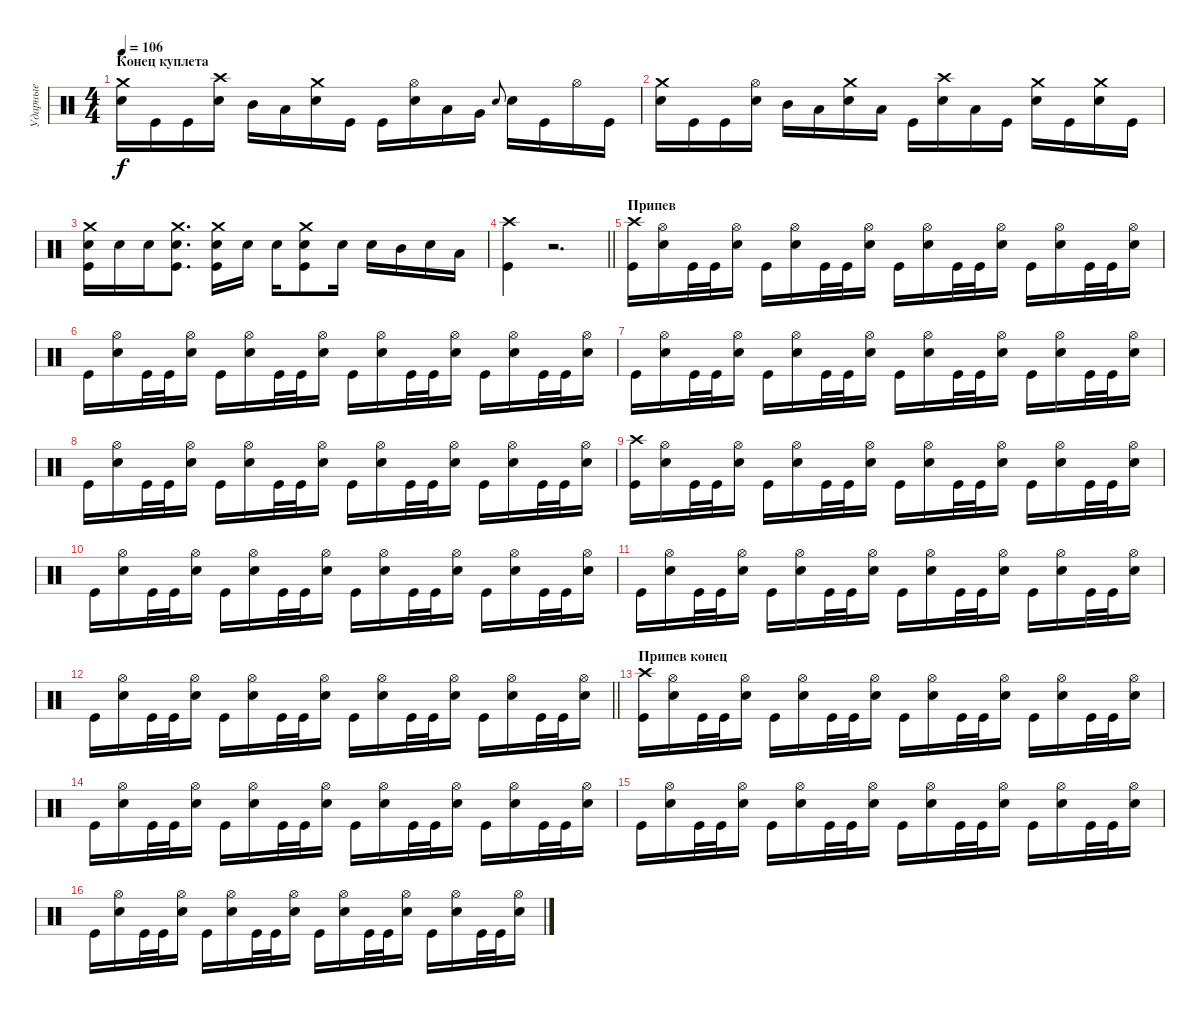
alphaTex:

\track ("Ударные" "Ударные") {instrument percussion}
\staff {score}
\articulation defaults
\ts (4 4)
\section ("" "Конец куплета")
\tempo 106
\clef neutral
\ks c
("Crash medium (hit)" "Snare (hit) 2").16{dy f} "Kick (hit)".16 "Kick (hit)".16 ("Crash high (hit)" "Snare (hit) 2").16 "Mid Tom (hit)".16 "Low Tom (hit)".16 ("Crash medium (hit)" "Snare (hit) 2").16 "Kick (hit)".16 "Kick (hit)".16 ("Hi-Hat (open)" "Snare (hit) 2").16 "Low Tom (hit)".16 "Very Low Tom (hit)".16 "Snare (hit) 2".8{gr onbeat} "Snare (hit) 2".16 "Kick (hit)".16 "Hi-Hat (open)".16 "Kick (hit)".16 |
("Crash medium (hit)" "Snare (hit) 2").16 "Kick (hit)".16 "Kick (hit)".16 ("Hi-Hat (open)" "Snare (hit) 2").16 "Mid Tom (hit)".16 "Low Tom (hit)".16 ("Crash medium (hit)" "Snare (hit) 2").16 "Low Tom (hit)".16 "Kick (hit)".16 ("Crash high (hit)" "Snare (hit) 2").16 "Low Tom (hit)".16 "Kick (hit)".16 ("Crash medium (hit)" "Snare (hit) 2").16 "Kick (hit)".16 ("Crash medium (hit)" "Snare (hit) 2").16 "Kick (hit)".16 |
("Crash medium (hit)" "Kick (hit)" "Snare (hit) 2").16 "Snare (hit) 2".16 "Snare (hit) 2".16 ("Crash medium (hit)" "Kick (hit)" "Snare (hit) 2").8{d} ("Crash medium (hit)" "Kick (hit)" "Snare (hit) 2").16 "Snare (hit) 2".16 "Snare (hit) 2".16 ("Crash medium (hit)" "Kick (hit)" "Snare (hit) 2").8 "Snare (hit) 2".16 "Snare (hit) 2".16 "Mid Tom (hit)".16 "Snare (hit) 2".16 "Low Tom (hit)".16 |
\barLineRight lightlight
("Crash high (hit)" "Kick (hit)").4 r.2{d} |
\section ("" "Припев")
("Crash high (hit)" "Kick (hit)").16 ("Hi-Hat (open)" "Snare (hit) 2").16 "Kick (hit)".32 "Kick (hit)".32 ("Hi-Hat (open)" "Snare (hit) 2").16 "Kick (hit)".16 ("Hi-Hat (open)" "Snare (hit) 2").16 "Kick (hit)".32 "Kick (hit)".32 ("Hi-Hat (open)" "Snare (hit) 2").16 "Kick (hit)".16 ("Hi-Hat (open)" "Snare (hit) 2").16 "Kick (hit)".32 "Kick (hit)".32 ("Hi-Hat (open)" "Snare (hit) 2").16 "Kick (hit)".16 ("Hi-Hat (open)" "Snare (hit) 2").16 "Kick (hit)".32 "Kick (hit)".32 ("Hi-Hat (open)" "Snare (hit) 2").16 |
"Kick (hit)".16 ("Hi-Hat (open)" "Snare (hit) 2").16 "Kick (hit)".32 "Kick (hit)".32 ("Hi-Hat (open)" "Snare (hit) 2").16 "Kick (hit)".16 ("Hi-Hat (open)" "Snare (hit) 2").16 "Kick (hit)".32 "Kick (hit)".32 ("Hi-Hat (open)" "Snare (hit) 2").16 "Kick (hit)".16 ("Hi-Hat (open)" "Snare (hit) 2").16 "Kick (hit)".32 "Kick (hit)".32 ("Hi-Hat (open)" "Snare (hit) 2").16 "Kick (hit)".16 ("Hi-Hat (open)" "Snare (hit) 2").16 "Kick (hit)".32 "Kick (hit)".32 ("Hi-Hat (open)" "Snare (hit) 2").16 |
"Kick (hit)".16 ("Hi-Hat (open)" "Snare (hit) 2").16 "Kick (hit)".32 "Kick (hit)".32 ("Hi-Hat (open)" "Snare (hit) 2").16 "Kick (hit)".16 ("Hi-Hat (open)" "Snare (hit) 2").16 "Kick (hit)".32 "Kick (hit)".32 ("Hi-Hat (open)" "Snare (hit) 2").16 "Kick (hit)".16 ("Hi-Hat (open)" "Snare (hit) 2").16 "Kick (hit)".32 "Kick (hit)".32 ("Hi-Hat (open)" "Snare (hit) 2").16 "Kick (hit)".16 ("Hi-Hat (open)" "Snare (hit) 2").16 "Kick (hit)".32 "Kick (hit)".32 ("Hi-Hat (open)" "Snare (hit) 2").16 |
"Kick (hit)".16 ("Hi-Hat (open)" "Snare (hit) 2").16 "Kick (hit)".32 "Kick (hit)".32 ("Hi-Hat (open)" "Snare (hit) 2").16 "Kick (hit)".16 ("Hi-Hat (open)" "Snare (hit) 2").16 "Kick (hit)".32 "Kick (hit)".32 ("Hi-Hat (open)" "Snare (hit) 2").16 "Kick (hit)".16 ("Hi-Hat (open)" "Snare (hit) 2").16 "Kick (hit)".32 "Kick (hit)".32 ("Hi-Hat (open)" "Snare (hit) 2").16 "Kick (hit)".16 ("Hi-Hat (open)" "Snare (hit) 2").16 "Kick (hit)".32 "Kick (hit)".32 ("Hi-Hat (open)" "Snare (hit) 2").16 |
("Crash high (hit)" "Kick (hit)").16 ("Hi-Hat (open)" "Snare (hit) 2").16 "Kick (hit)".32 "Kick (hit)".32 ("Hi-Hat (open)" "Snare (hit) 2").16 "Kick (hit)".16 ("Hi-Hat (open)" "Snare (hit) 2").16 "Kick (hit)".32 "Kick (hit)".32 ("Hi-Hat (open)" "Snare (hit) 2").16 "Kick (hit)".16 ("Hi-Hat (open)" "Snare (hit) 2").16 "Kick (hit)".32 "Kick (hit)".32 ("Hi-Hat (open)" "Snare (hit) 2").16 "Kick (hit)".16 ("Hi-Hat (open)" "Snare (hit) 2").16 "Kick (hit)".32 "Kick (hit)".32 ("Hi-Hat (open)" "Snare (hit) 2").16 |
"Kick (hit)".16 ("Hi-Hat (open)" "Snare (hit) 2").16 "Kick (hit)".32 "Kick (hit)".32 ("Hi-Hat (open)" "Snare (hit) 2").16 "Kick (hit)".16 ("Hi-Hat (open)" "Snare (hit) 2").16 "Kick (hit)".32 "Kick (hit)".32 ("Hi-Hat (open)" "Snare (hit) 2").16 "Kick (hit)".16 ("Hi-Hat (open)" "Snare (hit) 2").16 "Kick (hit)".32 "Kick (hit)".32 ("Hi-Hat (open)" "Snare (hit) 2").16 "Kick (hit)".16 ("Hi-Hat (open)" "Snare (hit) 2").16 "Kick (hit)".32 "Kick (hit)".32 ("Hi-Hat (open)" "Snare (hit) 2").16 |
"Kick (hit)".16 ("Hi-Hat (open)" "Snare (hit) 2").16 "Kick (hit)".32 "Kick (hit)".32 ("Hi-Hat (open)" "Snare (hit) 2").16 "Kick (hit)".16 ("Hi-Hat (open)" "Snare (hit) 2").16 "Kick (hit)".32 "Kick (hit)".32 ("Hi-Hat (open)" "Snare (hit) 2").16 "Kick (hit)".16 ("Hi-Hat (open)" "Snare (hit) 2").16 "Kick (hit)".32 "Kick (hit)".32 ("Hi-Hat (open)" "Snare (hit) 2").16 "Kick (hit)".16 ("Hi-Hat (open)" "Snare (hit) 2").16 "Kick (hit)".32 "Kick (hit)".32 ("Hi-Hat (open)" "Snare (hit) 2").16 |
\barLineRight lightlight "Kick (hit)".16
("Hi-Hat (open)" "Snare (hit) 2").16 "Kick (hit)".32 "Kick (hit)".32 ("Hi-Hat (open)" "Snare (hit) 2").16 "Kick (hit)".16 ("Hi-Hat (open)" "Snare (hit) 2").16 "Kick (hit)".32 "Kick (hit)".32 ("Hi-Hat (open)" "Snare (hit) 2").16 "Kick (hit)".16 ("Hi-Hat (open)" "Snare (hit) 2").16 "Kick (hit)".32 "Kick (hit)".32 ("Hi-Hat (open)" "Snare (hit) 2").16 "Kick (hit)".16 ("Hi-Hat (open)" "Snare (hit) 2").16 "Kick (hit)".32 "Kick (hit)".32 ("Hi-Hat (open)" "Snare (hit) 2").16 |
\section ("" "Припев конец")
("Crash high (hit)" "Kick (hit)").16 ("Hi-Hat (open)" "Snare (hit) 2").16 "Kick (hit)".32 "Kick (hit)".32 ("Hi-Hat (open)" "Snare (hit) 2").16 "Kick (hit)".16 ("Hi-Hat (open)" "Snare (hit) 2").16 "Kick (hit)".32 "Kick (hit)".32 ("Hi-Hat (open)" "Snare (hit) 2").16 "Kick (hit)".16 ("Hi-Hat (open)" "Snare (hit) 2").16 "Kick (hit)".32 "Kick (hit)".32 ("Hi-Hat (open)" "Snare (hit) 2").16 "Kick (hit)".16 ("Hi-Hat (open)" "Snare (hit) 2").16 "Kick (hit)".32 "Kick (hit)".32 ("Hi-Hat (open)" "Snare (hit) 2").16 |
"Kick (hit)".16 ("Hi-Hat (open)" "Snare (hit) 2").16 "Kick (hit)".32 "Kick (hit)".32 ("Hi-Hat (open)" "Snare (hit) 2").16 "Kick (hit)".16 ("Hi-Hat (open)" "Snare (hit) 2").16 "Kick (hit)".32 "Kick (hit)".32 ("Hi-Hat (open)" "Snare (hit) 2").16 "Kick (hit)".16 ("Hi-Hat (open)" "Snare (hit) 2").16 "Kick (hit)".32 "Kick (hit)".32 ("Hi-Hat (open)" "Snare (hit) 2").16 "Kick (hit)".16 ("Hi-Hat (open)" "Snare (hit) 2").16 "Kick (hit)".32 "Kick (hit)".32 ("Hi-Hat (open)" "Snare (hit) 2").16 |
"Kick (hit)".16 ("Hi-Hat (open)" "Snare (hit) 2").16 "Kick (hit)".32 "Kick (hit)".32 ("Hi-Hat (open)" "Snare (hit) 2").16 "Kick (hit)".16 ("Hi-Hat (open)" "Snare (hit) 2").16 "Kick (hit)".32 "Kick (hit)".32 ("Hi-Hat (open)" "Snare (hit) 2").16 "Kick (hit)".16 ("Hi-Hat (open)" "Snare (hit) 2").16 "Kick (hit)".32 "Kick (hit)".32 ("Hi-Hat (open)" "Snare (hit) 2").16 "Kick (hit)".16 ("Hi-Hat (open)" "Snare (hit) 2").16 "Kick (hit)".32 "Kick (hit)".32 ("Hi-Hat (open)" "Snare (hit) 2").16 |
"Kick (hit)".16 ("Hi-Hat (open)" "Snare (hit) 2").16 "Kick (hit)".32 "Kick (hit)".32 ("Hi-Hat (open)" "Snare (hit) 2").16 "Kick (hit)".16 ("Hi-Hat (open)" "Snare (hit) 2").16 "Kick (hit)".32 "Kick (hit)".32 ("Hi-Hat (open)" "Snare (hit) 2").16 "Kick (hit)".16 ("Hi-Hat (open)" "Snare (hit) 2").16 "Kick (hit)".32 "Kick (hit)".32 ("Hi-Hat (open)" "Snare (hit) 2").16 "Kick (hit)".16 ("Hi-Hat (open)" "Snare (hit) 2").16 "Kick (hit)".32 "Kick (hit)".32 ("Hi-Hat (open)" "Snare (hit) 2").16
